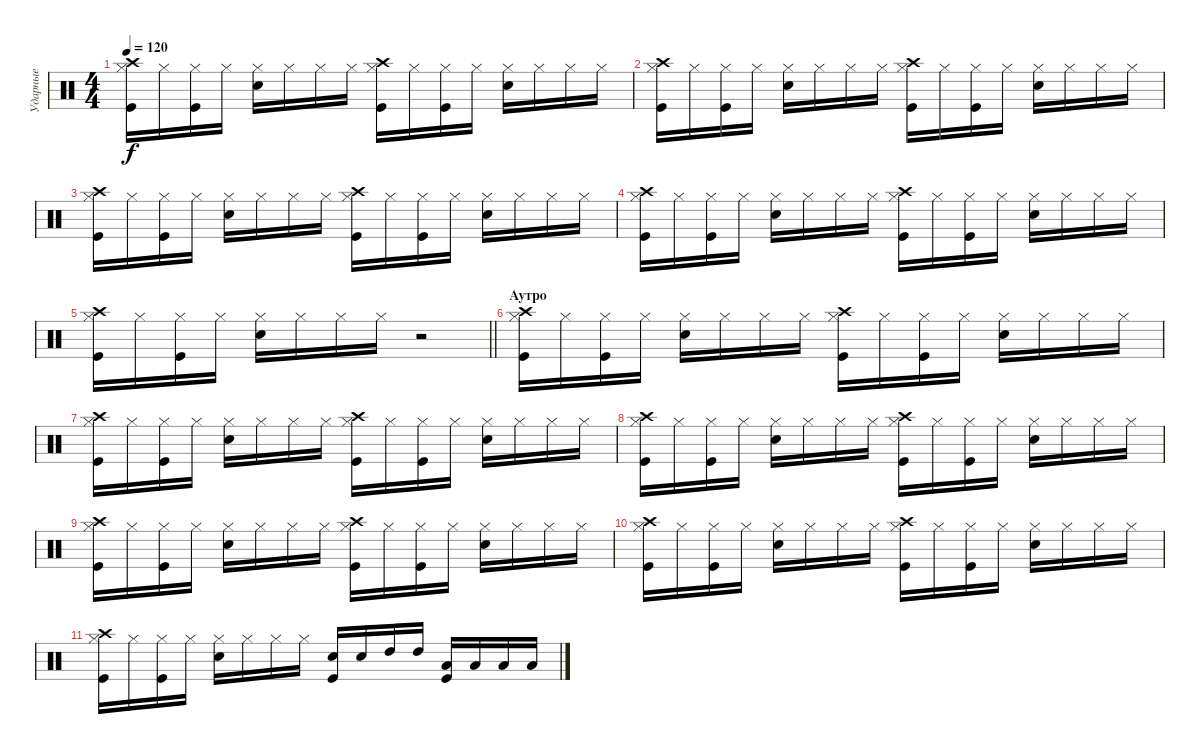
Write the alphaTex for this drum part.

\track ("Ударные" "Ударные") {instrument percussion}
\staff {score}
\articulation defaults
\ts (4 4)
\tempo 120
\clef neutral
\ks c
("Hi-Hat (closed)" "Kick (hit)" "Crash high (hit)").16{dy f} "Hi-Hat (closed)".16 ("Hi-Hat (closed)" "Kick (hit)").16 "Hi-Hat (closed)".16 ("Hi-Hat (closed)" "Snare (hit) 2").16 "Hi-Hat (closed)".16 "Hi-Hat (closed)".16 "Hi-Hat (closed)".16 ("Hi-Hat (closed)" "Kick (hit)" "Crash high (hit)").16 "Hi-Hat (closed)".16 ("Hi-Hat (closed)" "Kick (hit)").16 "Hi-Hat (closed)".16 ("Hi-Hat (closed)" "Snare (hit) 2").16 "Hi-Hat (closed)".16 "Hi-Hat (closed)".16 "Hi-Hat (closed)".16 |
("Hi-Hat (closed)" "Kick (hit)" "Crash high (hit)").16 "Hi-Hat (closed)".16 ("Hi-Hat (closed)" "Kick (hit)").16 "Hi-Hat (closed)".16 ("Hi-Hat (closed)" "Snare (hit) 2").16 "Hi-Hat (closed)".16 "Hi-Hat (closed)".16 "Hi-Hat (closed)".16 ("Hi-Hat (closed)" "Kick (hit)" "Crash high (hit)").16 "Hi-Hat (closed)".16 ("Hi-Hat (closed)" "Kick (hit)").16 "Hi-Hat (closed)".16 ("Hi-Hat (closed)" "Snare (hit) 2").16 "Hi-Hat (closed)".16 "Hi-Hat (closed)".16 "Hi-Hat (closed)".16 |
("Hi-Hat (closed)" "Kick (hit)" "Crash high (hit)").16 "Hi-Hat (closed)".16 ("Hi-Hat (closed)" "Kick (hit)").16 "Hi-Hat (closed)".16 ("Hi-Hat (closed)" "Snare (hit) 2").16 "Hi-Hat (closed)".16 "Hi-Hat (closed)".16 "Hi-Hat (closed)".16 ("Hi-Hat (closed)" "Kick (hit)" "Crash high (hit)").16 "Hi-Hat (closed)".16 ("Hi-Hat (closed)" "Kick (hit)").16 "Hi-Hat (closed)".16 ("Hi-Hat (closed)" "Snare (hit) 2").16 "Hi-Hat (closed)".16 "Hi-Hat (closed)".16 "Hi-Hat (closed)".16 |
("Hi-Hat (closed)" "Kick (hit)" "Crash high (hit)").16 "Hi-Hat (closed)".16 ("Hi-Hat (closed)" "Kick (hit)").16 "Hi-Hat (closed)".16 ("Hi-Hat (closed)" "Snare (hit) 2").16 "Hi-Hat (closed)".16 "Hi-Hat (closed)".16 "Hi-Hat (closed)".16 ("Hi-Hat (closed)" "Kick (hit)" "Crash high (hit)").16 "Hi-Hat (closed)".16 ("Hi-Hat (closed)" "Kick (hit)").16 "Hi-Hat (closed)".16 ("Hi-Hat (closed)" "Snare (hit) 2").16 "Hi-Hat (closed)".16 "Hi-Hat (closed)".16 "Hi-Hat (closed)".16 |
\barLineRight lightlight
("Hi-Hat (closed)" "Kick (hit)" "Crash high (hit)").16 "Hi-Hat (closed)".16 ("Hi-Hat (closed)" "Kick (hit)").16 "Hi-Hat (closed)".16 ("Hi-Hat (closed)" "Snare (hit) 2").16 "Hi-Hat (closed)".16 "Hi-Hat (closed)".16 "Hi-Hat (closed)".16 r.2 |
\section ("" "Аутро")
("Hi-Hat (closed)" "Kick (hit)" "Crash high (hit)").16 "Hi-Hat (closed)".16 ("Hi-Hat (closed)" "Kick (hit)").16 "Hi-Hat (closed)".16 ("Hi-Hat (closed)" "Snare (hit) 2").16 "Hi-Hat (closed)".16 "Hi-Hat (closed)".16 "Hi-Hat (closed)".16 ("Hi-Hat (closed)" "Kick (hit)" "Crash high (hit)").16 "Hi-Hat (closed)".16 ("Hi-Hat (closed)" "Kick (hit)").16 "Hi-Hat (closed)".16 ("Hi-Hat (closed)" "Snare (hit) 2").16 "Hi-Hat (closed)".16 "Hi-Hat (closed)".16 "Hi-Hat (closed)".16 |
("Hi-Hat (closed)" "Kick (hit)" "Crash high (hit)").16 "Hi-Hat (closed)".16 ("Hi-Hat (closed)" "Kick (hit)").16 "Hi-Hat (closed)".16 ("Hi-Hat (closed)" "Snare (hit) 2").16 "Hi-Hat (closed)".16 "Hi-Hat (closed)".16 "Hi-Hat (closed)".16 ("Hi-Hat (closed)" "Kick (hit)" "Crash high (hit)").16 "Hi-Hat (closed)".16 ("Hi-Hat (closed)" "Kick (hit)").16 "Hi-Hat (closed)".16 ("Hi-Hat (closed)" "Snare (hit) 2").16 "Hi-Hat (closed)".16 "Hi-Hat (closed)".16 "Hi-Hat (closed)".16 |
("Hi-Hat (closed)" "Kick (hit)" "Crash high (hit)").16 "Hi-Hat (closed)".16 ("Hi-Hat (closed)" "Kick (hit)").16 "Hi-Hat (closed)".16 ("Hi-Hat (closed)" "Snare (hit) 2").16 "Hi-Hat (closed)".16 "Hi-Hat (closed)".16 "Hi-Hat (closed)".16 ("Hi-Hat (closed)" "Kick (hit)" "Crash high (hit)").16 "Hi-Hat (closed)".16 ("Hi-Hat (closed)" "Kick (hit)").16 "Hi-Hat (closed)".16 ("Hi-Hat (closed)" "Snare (hit) 2").16 "Hi-Hat (closed)".16 "Hi-Hat (closed)".16 "Hi-Hat (closed)".16 |
("Hi-Hat (closed)" "Kick (hit)" "Crash high (hit)").16 "Hi-Hat (closed)".16 ("Hi-Hat (closed)" "Kick (hit)").16 "Hi-Hat (closed)".16 ("Hi-Hat (closed)" "Snare (hit) 2").16 "Hi-Hat (closed)".16 "Hi-Hat (closed)".16 "Hi-Hat (closed)".16 ("Hi-Hat (closed)" "Kick (hit)" "Crash high (hit)").16 "Hi-Hat (closed)".16 ("Hi-Hat (closed)" "Kick (hit)").16 "Hi-Hat (closed)".16 ("Hi-Hat (closed)" "Snare (hit) 2").16 "Hi-Hat (closed)".16 "Hi-Hat (closed)".16 "Hi-Hat (closed)".16 |
("Hi-Hat (closed)" "Kick (hit)" "Crash high (hit)").16 "Hi-Hat (closed)".16 ("Hi-Hat (closed)" "Kick (hit)").16 "Hi-Hat (closed)".16 ("Hi-Hat (closed)" "Snare (hit) 2").16 "Hi-Hat (closed)".16 "Hi-Hat (closed)".16 "Hi-Hat (closed)".16 ("Hi-Hat (closed)" "Kick (hit)" "Crash high (hit)").16 "Hi-Hat (closed)".16 ("Hi-Hat (closed)" "Kick (hit)").16 "Hi-Hat (closed)".16 ("Hi-Hat (closed)" "Snare (hit) 2").16 "Hi-Hat (closed)".16 "Hi-Hat (closed)".16 "Hi-Hat (closed)".16 |
("Hi-Hat (closed)" "Kick (hit)" "Crash high (hit)").16 "Hi-Hat (closed)".16 ("Hi-Hat (closed)" "Kick (hit)").16 "Hi-Hat (closed)".16 ("Hi-Hat (closed)" "Snare (hit) 2").16 "Hi-Hat (closed)".16 "Hi-Hat (closed)".16 "Hi-Hat (closed)".16 ("Snare (hit) 2" "Kick (hit)").16 "Snare (hit) 2".16 "High Tom (hit)".16 "High Tom (hit)".16 ("Low Tom (hit)" "Kick (hit)").16 "Low Tom (hit)".16 "Low Floor Tom (hit)".16 "Low Floor Tom (hit)".16
